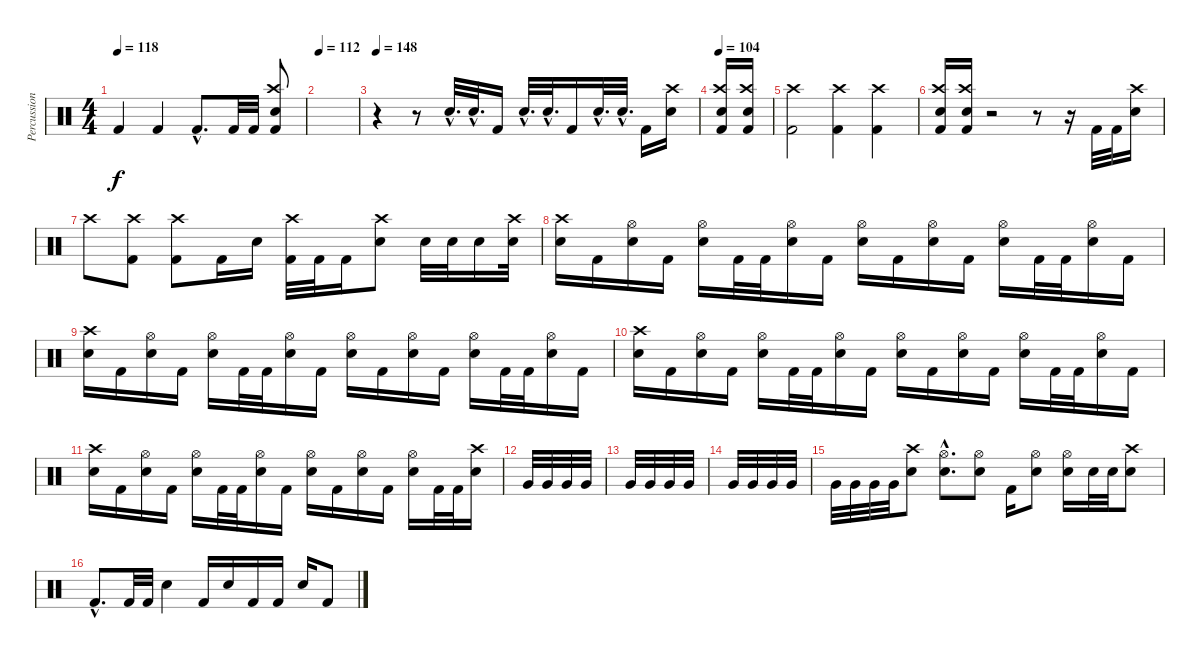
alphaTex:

\track ("Percussion" "Percussion") {instrument percussion}
\staff {score}
\articulation defaults
\ts (4 4)
\tempo 118
\clef neutral
\ks c "Kick (hit) 2".4{dy f} "Kick (hit) 2".4 "Kick (hit) 2"{hac}.8{d} "Kick (hit) 2".32 "Kick (hit) 2".32
("Crash high (hit)" "Electric Snare (hit)" "Kick (hit) 2").8 |
\tempo 112
|
\tempo 148
r.4 r.8 "Electric Snare (hit)"{hac}.32{d} "Electric Snare (hit)"{hac}.32{d} "Kick (hit) 2".16 "Electric Snare (hit)"{hac}.32{d} "Electric Snare (hit)"{hac}.32{d} "Kick (hit) 2".16 "Electric Snare (hit)"{hac}.32{d} "Electric Snare (hit)"{hac}.32{d} "Kick (hit) 2".16 ("Crash high (hit)" "Electric Snare (hit)").16 |
\tempo 104
("Crash high (hit)" "Electric Snare (hit)" "Kick (hit) 2").16 ("Crash high (hit)" "Electric Snare (hit)" "Kick (hit) 2").16 |
("Crash high (hit)" "Kick (hit) 2").2 ("Crash high (hit)" "Kick (hit) 2").4 ("Crash high (hit)" "Kick (hit) 2").4 |
("Crash high (hit)" "Electric Snare (hit)" "Kick (hit) 2").16 ("Crash high (hit)" "Electric Snare (hit)" "Kick (hit) 2").16 r.2 r.8 r.16 "Kick (hit) 2".32 "Kick (hit) 2".32 ("Crash high (hit)" "Electric Snare (hit)").16 |
"Crash high (hit)".8 ("Crash high (hit)" "Kick (hit) 2").8 ("Crash high (hit)" "Kick (hit) 2").8 "Kick (hit) 2".16 "Electric Snare (hit)".16 ("Crash high (hit)" "Kick (hit) 2").32 "Kick (hit) 2".32 "Kick (hit) 2".16 ("Crash high (hit)" "Electric Snare (hit)").8 "Electric Snare (hit)".32 "Electric Snare (hit)".32 "Electric Snare (hit)".16 ("Crash high (hit)" "Electric Snare (hit)").32 |
("Crash high (hit)" "Electric Snare (hit)").16 "Kick (hit) 2".16 ("Hi-Hat (open)" "Electric Snare (hit)").16 "Kick (hit) 2".16 ("Hi-Hat (open)" "Electric Snare (hit)").16 "Kick (hit) 2".32 "Kick (hit) 2".32 ("Hi-Hat (open)" "Electric Snare (hit)").16 "Kick (hit) 2".16 ("Hi-Hat (open)" "Electric Snare (hit)").16 "Kick (hit) 2".16 ("Hi-Hat (open)" "Electric Snare (hit)").16 "Kick (hit) 2".16 ("Hi-Hat (open)" "Electric Snare (hit)").16 "Kick (hit) 2".32 "Kick (hit) 2".32 ("Hi-Hat (open)" "Electric Snare (hit)").16 "Kick (hit) 2".16 |
("Crash high (hit)" "Electric Snare (hit)").16 "Kick (hit) 2".16 ("Hi-Hat (open)" "Electric Snare (hit)").16 "Kick (hit) 2".16 ("Hi-Hat (open)" "Electric Snare (hit)").16 "Kick (hit) 2".32 "Kick (hit) 2".32 ("Hi-Hat (open)" "Electric Snare (hit)").16 "Kick (hit) 2".16 ("Hi-Hat (open)" "Electric Snare (hit)").16 "Kick (hit) 2".16 ("Hi-Hat (open)" "Electric Snare (hit)").16 "Kick (hit) 2".16 ("Hi-Hat (open)" "Electric Snare (hit)").16 "Kick (hit) 2".32 "Kick (hit) 2".32 ("Hi-Hat (open)" "Electric Snare (hit)").16 "Kick (hit) 2".16 |
("Crash high (hit)" "Electric Snare (hit)").16 "Kick (hit) 2".16 ("Hi-Hat (open)" "Electric Snare (hit)").16 "Kick (hit) 2".16 ("Hi-Hat (open)" "Electric Snare (hit)").16 "Kick (hit) 2".32 "Kick (hit) 2".32 ("Hi-Hat (open)" "Electric Snare (hit)").16 "Kick (hit) 2".16 ("Hi-Hat (open)" "Electric Snare (hit)").16 "Kick (hit) 2".16 ("Hi-Hat (open)" "Electric Snare (hit)").16 "Kick (hit) 2".16 ("Hi-Hat (open)" "Electric Snare (hit)").16 "Kick (hit) 2".32 "Kick (hit) 2".32 ("Hi-Hat (open)" "Electric Snare (hit)").16 "Kick (hit) 2".16 |
("Crash high (hit)" "Electric Snare (hit)").16 "Kick (hit) 2".16 ("Hi-Hat (open)" "Electric Snare (hit)").16 "Kick (hit) 2".16 ("Hi-Hat (open)" "Electric Snare (hit)").16 "Kick (hit) 2".32 "Kick (hit) 2".32 ("Hi-Hat (open)" "Electric Snare (hit)").16 "Kick (hit) 2".16 ("Hi-Hat (open)" "Electric Snare (hit)").16 "Kick (hit) 2".16 ("Hi-Hat (open)" "Electric Snare (hit)").16 "Kick (hit) 2".16 ("Hi-Hat (open)" "Electric Snare (hit)").16 "Kick (hit) 2".32 "Kick (hit) 2".32 ("Crash high (hit)" "Electric Snare (hit)").16 |
"Very Low Tom (hit)".32 "Very Low Tom (hit)".32 "Very Low Tom (hit)".32 "Very Low Tom (hit)".32 |
"Very Low Tom (hit)".32 "Very Low Tom (hit)".32 "Very Low Tom (hit)".32 "Very Low Tom (hit)".32 |
"Very Low Tom (hit)".32 "Very Low Tom (hit)".32 "Very Low Tom (hit)".32 "Very Low Tom (hit)".32 |
"Very Low Tom (hit)".32 "Very Low Tom (hit)".32 "Very Low Tom (hit)".32 "Very Low Tom (hit)".32 ("Crash high (hit)" "Electric Snare (hit)").8 ("Hi-Hat (open)"{hac} "Electric Snare (hit)"{hac}).8{d} ("Hi-Hat (open)" "Electric Snare (hit)").8 "Kick (hit) 2".16 ("Hi-Hat (open)" "Electric Snare (hit)").8 ("Hi-Hat (open)" "Electric Snare (hit)").16 "Electric Snare (hit)".32 "Electric Snare (hit)".32 ("Crash high (hit)" "Electric Snare (hit)").8 |
"Kick (hit) 2"{hac}.8{d} "Kick (hit) 2".32 "Kick (hit) 2".32 "Electric Snare (hit)".4 "Kick (hit) 2".16 "Electric Snare (hit)".16 "Kick (hit) 2".16 "Kick (hit) 2".16 "Electric Snare (hit)".16 "Kick (hit) 2".8
